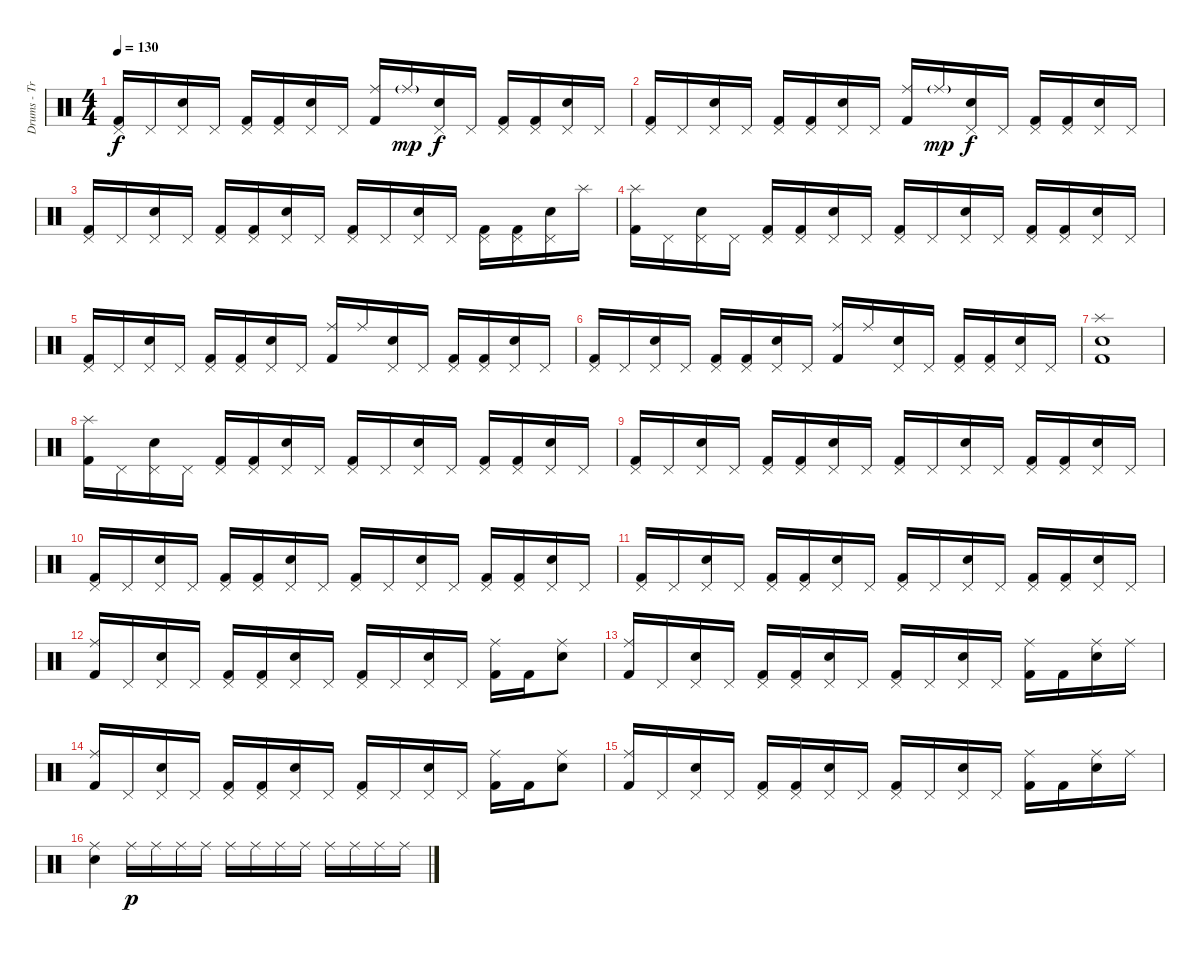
\track ("Drums - Travis Barker" "Drums - Tr") {instrument percussion}
\staff {score}
\articulation defaults
\ts (4 4)
\tempo 130
\clef neutral
\ks c
("Pedal Hi-Hat (hit)" "Kick (hit) 2").16{dy f} "Pedal Hi-Hat (hit)".16 ("Pedal Hi-Hat (hit)" "Electric Snare (hit)").16 "Pedal Hi-Hat (hit)".16 ("Pedal Hi-Hat (hit)" "Kick (hit) 2").16 ("Pedal Hi-Hat (hit)" "Kick (hit) 2").16 ("Pedal Hi-Hat (hit)" "Electric Snare (hit)").16 "Pedal Hi-Hat (hit)".16 ("Ride (middle)" "Kick (hit) 2").16 "Ride (middle)"{g}.16{dy mp} ("Pedal Hi-Hat (hit)" "Electric Snare (hit)").16{dy f} "Pedal Hi-Hat (hit)".16 ("Pedal Hi-Hat (hit)" "Kick (hit) 2").16 ("Pedal Hi-Hat (hit)" "Kick (hit) 2").16 ("Pedal Hi-Hat (hit)" "Electric Snare (hit)").16 "Pedal Hi-Hat (hit)".16 |
("Pedal Hi-Hat (hit)" "Kick (hit) 2").16 "Pedal Hi-Hat (hit)".16 ("Pedal Hi-Hat (hit)" "Electric Snare (hit)").16 "Pedal Hi-Hat (hit)".16 ("Pedal Hi-Hat (hit)" "Kick (hit) 2").16 ("Pedal Hi-Hat (hit)" "Kick (hit) 2").16 ("Pedal Hi-Hat (hit)" "Electric Snare (hit)").16 "Pedal Hi-Hat (hit)".16 ("Ride (middle)" "Kick (hit) 2").16 "Ride (middle)"{g}.16{dy mp} ("Pedal Hi-Hat (hit)" "Electric Snare (hit)").16{dy f} "Pedal Hi-Hat (hit)".16 ("Pedal Hi-Hat (hit)" "Kick (hit) 2").16 ("Pedal Hi-Hat (hit)" "Kick (hit) 2").16 ("Pedal Hi-Hat (hit)" "Electric Snare (hit)").16 "Pedal Hi-Hat (hit)".16 |
("Pedal Hi-Hat (hit)" "Kick (hit) 2").16 "Pedal Hi-Hat (hit)".16 ("Pedal Hi-Hat (hit)" "Electric Snare (hit)").16 "Pedal Hi-Hat (hit)".16 ("Pedal Hi-Hat (hit)" "Kick (hit) 2").16 ("Pedal Hi-Hat (hit)" "Kick (hit) 2").16 ("Pedal Hi-Hat (hit)" "Electric Snare (hit)").16 "Pedal Hi-Hat (hit)".16 ("Pedal Hi-Hat (hit)" "Kick (hit) 2").16 "Pedal Hi-Hat (hit)".16 ("Pedal Hi-Hat (hit)" "Electric Snare (hit)").16 "Pedal Hi-Hat (hit)".16 ("Pedal Hi-Hat (hit)" "Kick (hit) 2").16 ("Pedal Hi-Hat (hit)" "Kick (hit) 2").16 ("Pedal Hi-Hat (hit)" "Electric Snare (hit)").16 "Splash (hit)".16 |
("Splash (hit)" "Kick (hit) 2").16 "Pedal Hi-Hat (hit)".16 ("Pedal Hi-Hat (hit)" "Electric Snare (hit)").16 "Pedal Hi-Hat (hit)".16 ("Pedal Hi-Hat (hit)" "Kick (hit) 2").16 ("Pedal Hi-Hat (hit)" "Kick (hit) 2").16 ("Pedal Hi-Hat (hit)" "Electric Snare (hit)").16 "Pedal Hi-Hat (hit)".16 ("Pedal Hi-Hat (hit)" "Kick (hit) 2").16 "Pedal Hi-Hat (hit)".16 ("Pedal Hi-Hat (hit)" "Electric Snare (hit)").16 "Pedal Hi-Hat (hit)".16 ("Pedal Hi-Hat (hit)" "Kick (hit) 2").16 ("Pedal Hi-Hat (hit)" "Kick (hit) 2").16 ("Pedal Hi-Hat (hit)" "Electric Snare (hit)").16 "Pedal Hi-Hat (hit)".16 |
("Pedal Hi-Hat (hit)" "Kick (hit) 2").16 "Pedal Hi-Hat (hit)".16 ("Pedal Hi-Hat (hit)" "Electric Snare (hit)").16 "Pedal Hi-Hat (hit)".16 ("Pedal Hi-Hat (hit)" "Kick (hit) 2").16 ("Pedal Hi-Hat (hit)" "Kick (hit) 2").16 ("Pedal Hi-Hat (hit)" "Electric Snare (hit)").16 "Pedal Hi-Hat (hit)".16 ("Ride (middle)" "Kick (hit) 2").16 "Ride (middle)".16 ("Pedal Hi-Hat (hit)" "Electric Snare (hit)").16 "Pedal Hi-Hat (hit)".16 ("Pedal Hi-Hat (hit)" "Kick (hit) 2").16 ("Pedal Hi-Hat (hit)" "Kick (hit) 2").16 ("Pedal Hi-Hat (hit)" "Electric Snare (hit)").16 "Pedal Hi-Hat (hit)".16 |
("Pedal Hi-Hat (hit)" "Kick (hit) 2").16 "Pedal Hi-Hat (hit)".16 ("Pedal Hi-Hat (hit)" "Electric Snare (hit)").16 "Pedal Hi-Hat (hit)".16 ("Pedal Hi-Hat (hit)" "Kick (hit) 2").16 ("Pedal Hi-Hat (hit)" "Kick (hit) 2").16 ("Pedal Hi-Hat (hit)" "Electric Snare (hit)").16 "Pedal Hi-Hat (hit)".16 ("Ride (middle)" "Kick (hit) 2").16 "Ride (middle)".16 ("Pedal Hi-Hat (hit)" "Electric Snare (hit)").16 "Pedal Hi-Hat (hit)".16 ("Pedal Hi-Hat (hit)" "Kick (hit) 2").16 ("Pedal Hi-Hat (hit)" "Kick (hit) 2").16 ("Pedal Hi-Hat (hit)" "Electric Snare (hit)").16 "Pedal Hi-Hat (hit)".16 |
("Splash (hit)" "Electric Snare (hit)" "Kick (hit) 2").1 |
("Splash (hit)" "Kick (hit) 2").16 "Pedal Hi-Hat (hit)".16 ("Pedal Hi-Hat (hit)" "Electric Snare (hit)").16 "Pedal Hi-Hat (hit)".16 ("Pedal Hi-Hat (hit)" "Kick (hit) 2").16 ("Pedal Hi-Hat (hit)" "Kick (hit) 2").16 ("Pedal Hi-Hat (hit)" "Electric Snare (hit)").16 "Pedal Hi-Hat (hit)".16 ("Pedal Hi-Hat (hit)" "Kick (hit) 2").16 "Pedal Hi-Hat (hit)".16 ("Pedal Hi-Hat (hit)" "Electric Snare (hit)").16 "Pedal Hi-Hat (hit)".16 ("Pedal Hi-Hat (hit)" "Kick (hit) 2").16 ("Pedal Hi-Hat (hit)" "Kick (hit) 2").16 ("Pedal Hi-Hat (hit)" "Electric Snare (hit)").16 "Pedal Hi-Hat (hit)".16 |
("Pedal Hi-Hat (hit)" "Kick (hit) 2").16 "Pedal Hi-Hat (hit)".16 ("Pedal Hi-Hat (hit)" "Electric Snare (hit)").16 "Pedal Hi-Hat (hit)".16 ("Pedal Hi-Hat (hit)" "Kick (hit) 2").16 ("Pedal Hi-Hat (hit)" "Kick (hit) 2").16 ("Pedal Hi-Hat (hit)" "Electric Snare (hit)").16 "Pedal Hi-Hat (hit)".16 ("Pedal Hi-Hat (hit)" "Kick (hit) 2").16 "Pedal Hi-Hat (hit)".16 ("Pedal Hi-Hat (hit)" "Electric Snare (hit)").16 "Pedal Hi-Hat (hit)".16 ("Pedal Hi-Hat (hit)" "Kick (hit) 2").16 ("Pedal Hi-Hat (hit)" "Kick (hit) 2").16 ("Pedal Hi-Hat (hit)" "Electric Snare (hit)").16 "Pedal Hi-Hat (hit)".16 |
("Pedal Hi-Hat (hit)" "Kick (hit) 2").16 "Pedal Hi-Hat (hit)".16 ("Pedal Hi-Hat (hit)" "Electric Snare (hit)").16 "Pedal Hi-Hat (hit)".16 ("Pedal Hi-Hat (hit)" "Kick (hit) 2").16 ("Pedal Hi-Hat (hit)" "Kick (hit) 2").16 ("Pedal Hi-Hat (hit)" "Electric Snare (hit)").16 "Pedal Hi-Hat (hit)".16 ("Pedal Hi-Hat (hit)" "Kick (hit) 2").16 "Pedal Hi-Hat (hit)".16 ("Pedal Hi-Hat (hit)" "Electric Snare (hit)").16 "Pedal Hi-Hat (hit)".16 ("Pedal Hi-Hat (hit)" "Kick (hit) 2").16 ("Pedal Hi-Hat (hit)" "Kick (hit) 2").16 ("Pedal Hi-Hat (hit)" "Electric Snare (hit)").16 "Pedal Hi-Hat (hit)".16 |
("Pedal Hi-Hat (hit)" "Kick (hit) 2").16 "Pedal Hi-Hat (hit)".16 ("Pedal Hi-Hat (hit)" "Electric Snare (hit)").16 "Pedal Hi-Hat (hit)".16 ("Pedal Hi-Hat (hit)" "Kick (hit) 2").16 ("Pedal Hi-Hat (hit)" "Kick (hit) 2").16 ("Pedal Hi-Hat (hit)" "Electric Snare (hit)").16 "Pedal Hi-Hat (hit)".16 ("Pedal Hi-Hat (hit)" "Kick (hit) 2").16 "Pedal Hi-Hat (hit)".16 ("Pedal Hi-Hat (hit)" "Electric Snare (hit)").16 "Pedal Hi-Hat (hit)".16 ("Pedal Hi-Hat (hit)" "Kick (hit) 2").16 ("Pedal Hi-Hat (hit)" "Kick (hit) 2").16 ("Pedal Hi-Hat (hit)" "Electric Snare (hit)").16 "Pedal Hi-Hat (hit)".16 |
("Ride (middle)" "Kick (hit) 2").16 "Pedal Hi-Hat (hit)".16 ("Pedal Hi-Hat (hit)" "Electric Snare (hit)").16 "Pedal Hi-Hat (hit)".16 ("Pedal Hi-Hat (hit)" "Kick (hit) 2").16 ("Pedal Hi-Hat (hit)" "Kick (hit) 2").16 ("Pedal Hi-Hat (hit)" "Electric Snare (hit)").16 "Pedal Hi-Hat (hit)".16 ("Pedal Hi-Hat (hit)" "Kick (hit) 2").16 "Pedal Hi-Hat (hit)".16 ("Pedal Hi-Hat (hit)" "Electric Snare (hit)").16 "Pedal Hi-Hat (hit)".16 ("Ride (middle)" "Kick (hit) 2").16 "Kick (hit) 2".16 ("Ride (middle)" "Electric Snare (hit)").8 |
("Ride (middle)" "Kick (hit) 2").16 "Pedal Hi-Hat (hit)".16 ("Pedal Hi-Hat (hit)" "Electric Snare (hit)").16 "Pedal Hi-Hat (hit)".16 ("Pedal Hi-Hat (hit)" "Kick (hit) 2").16 ("Pedal Hi-Hat (hit)" "Kick (hit) 2").16 ("Pedal Hi-Hat (hit)" "Electric Snare (hit)").16 "Pedal Hi-Hat (hit)".16 ("Pedal Hi-Hat (hit)" "Kick (hit) 2").16 "Pedal Hi-Hat (hit)".16 ("Pedal Hi-Hat (hit)" "Electric Snare (hit)").16 "Pedal Hi-Hat (hit)".16 ("Ride (middle)" "Kick (hit) 2").16 "Kick (hit) 2".16 ("Ride (middle)" "Electric Snare (hit)").16 "Ride (middle)".16 |
("Ride (middle)" "Kick (hit) 2").16 "Pedal Hi-Hat (hit)".16 ("Pedal Hi-Hat (hit)" "Electric Snare (hit)").16 "Pedal Hi-Hat (hit)".16 ("Pedal Hi-Hat (hit)" "Kick (hit) 2").16 ("Pedal Hi-Hat (hit)" "Kick (hit) 2").16 ("Pedal Hi-Hat (hit)" "Electric Snare (hit)").16 "Pedal Hi-Hat (hit)".16 ("Pedal Hi-Hat (hit)" "Kick (hit) 2").16 "Pedal Hi-Hat (hit)".16 ("Pedal Hi-Hat (hit)" "Electric Snare (hit)").16 "Pedal Hi-Hat (hit)".16 ("Ride (middle)" "Kick (hit) 2").16 "Kick (hit) 2".16 ("Ride (middle)" "Electric Snare (hit)").8 |
("Ride (middle)" "Kick (hit) 2").16 "Pedal Hi-Hat (hit)".16 ("Pedal Hi-Hat (hit)" "Electric Snare (hit)").16 "Pedal Hi-Hat (hit)".16 ("Pedal Hi-Hat (hit)" "Kick (hit) 2").16 ("Pedal Hi-Hat (hit)" "Kick (hit) 2").16 ("Pedal Hi-Hat (hit)" "Electric Snare (hit)").16 "Pedal Hi-Hat (hit)".16 ("Pedal Hi-Hat (hit)" "Kick (hit) 2").16 "Pedal Hi-Hat (hit)".16 ("Pedal Hi-Hat (hit)" "Electric Snare (hit)").16 "Pedal Hi-Hat (hit)".16 ("Ride (middle)" "Kick (hit) 2").16 "Kick (hit) 2".16 ("Ride (middle)" "Electric Snare (hit)").16 "Ride (middle)".16 |
("Ride (middle)" "Electric Snare (hit)").4 "Ride (middle)".16{dy p} "Ride (middle)".16 "Ride (middle)".16 "Ride (middle)".16 "Ride (middle)".16 "Ride (middle)".16 "Ride (middle)".16 "Ride (middle)".16 "Ride (middle)".16 "Ride (middle)".16 "Ride (middle)".16 "Ride (middle)".16
